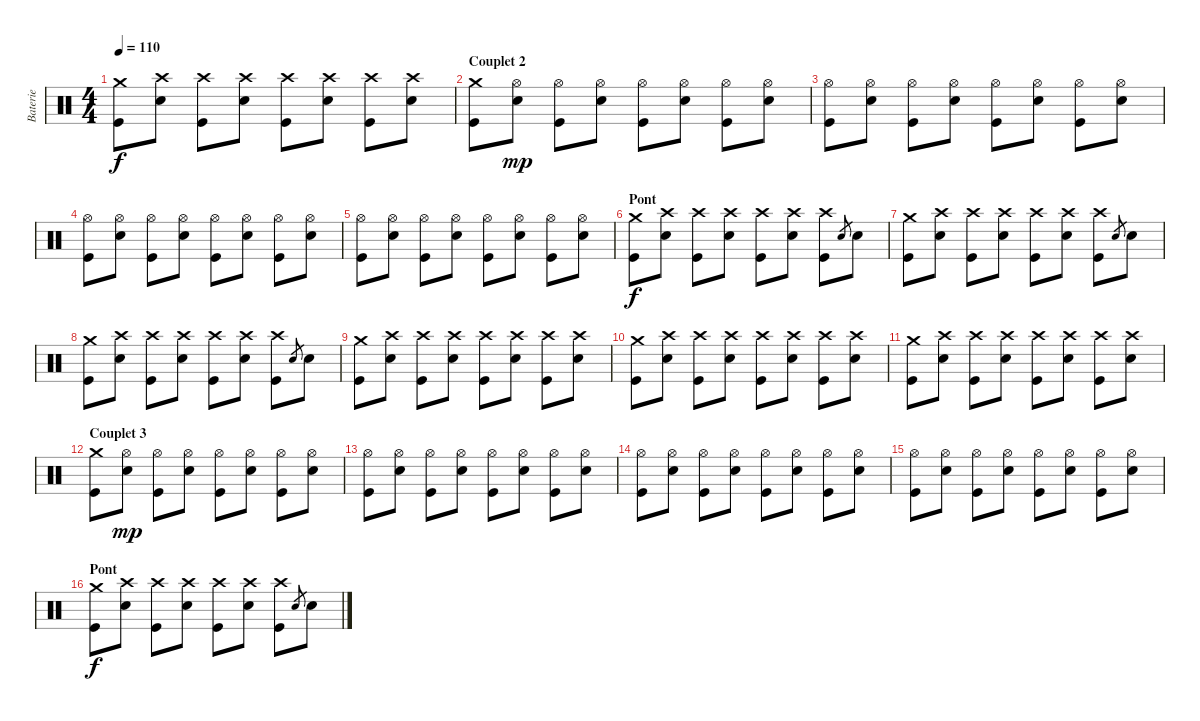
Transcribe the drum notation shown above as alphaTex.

\track ("Baterie" "Baterie") {instrument percussion}
\staff {score}
\articulation defaults
\ts (4 4)
\tempo 110
\clef neutral
\ks c
("Crash medium (hit)" "Kick (hit)").8{dy f} ("Crash high (hit)" "Electric Snare (hit)").8 ("Crash high (hit)" "Kick (hit)").8 ("Crash high (hit)" "Electric Snare (hit)").8 ("Crash high (hit)" "Kick (hit)").8 ("Crash high (hit)" "Electric Snare (hit)").8 ("Crash high (hit)" "Kick (hit)").8 ("Crash high (hit)" "Electric Snare (hit)").8 |
\section ("" "Couplet 2")
("Crash medium (hit)" "Kick (hit)").8 ("Hi-Hat (open)" "Electric Snare (hit)").8{dy mp} ("Hi-Hat (open)" "Kick (hit)").8 ("Hi-Hat (open)" "Electric Snare (hit)").8 ("Hi-Hat (open)" "Kick (hit)").8 ("Hi-Hat (open)" "Electric Snare (hit)").8 ("Hi-Hat (open)" "Kick (hit)").8 ("Hi-Hat (open)" "Electric Snare (hit)").8 |
("Hi-Hat (open)" "Kick (hit)").8 ("Hi-Hat (open)" "Electric Snare (hit)").8 ("Hi-Hat (open)" "Kick (hit)").8 ("Hi-Hat (open)" "Electric Snare (hit)").8 ("Hi-Hat (open)" "Kick (hit)").8 ("Hi-Hat (open)" "Electric Snare (hit)").8 ("Hi-Hat (open)" "Kick (hit)").8 ("Hi-Hat (open)" "Electric Snare (hit)").8 |
("Hi-Hat (open)" "Kick (hit)").8 ("Hi-Hat (open)" "Electric Snare (hit)").8 ("Hi-Hat (open)" "Kick (hit)").8 ("Hi-Hat (open)" "Electric Snare (hit)").8 ("Hi-Hat (open)" "Kick (hit)").8 ("Hi-Hat (open)" "Electric Snare (hit)").8 ("Hi-Hat (open)" "Kick (hit)").8 ("Hi-Hat (open)" "Electric Snare (hit)").8 |
("Hi-Hat (open)" "Kick (hit)").8 ("Hi-Hat (open)" "Electric Snare (hit)").8 ("Hi-Hat (open)" "Kick (hit)").8 ("Hi-Hat (open)" "Electric Snare (hit)").8 ("Hi-Hat (open)" "Kick (hit)").8 ("Hi-Hat (open)" "Electric Snare (hit)").8 ("Hi-Hat (open)" "Kick (hit)").8 ("Hi-Hat (open)" "Electric Snare (hit)").8 |
\section ("" "Pont")
("Crash medium (hit)" "Kick (hit)").8{dy f} ("Crash high (hit)" "Electric Snare (hit)").8 ("Crash high (hit)" "Kick (hit)").8 ("Crash high (hit)" "Electric Snare (hit)").8 ("Crash high (hit)" "Kick (hit)").8 ("Crash high (hit)" "Electric Snare (hit)").8 ("Crash high (hit)" "Kick (hit)").8 "Electric Snare (hit)".8{gr} "Electric Snare (hit)".8 |
("Crash medium (hit)" "Kick (hit)").8 ("Crash high (hit)" "Electric Snare (hit)").8 ("Crash high (hit)" "Kick (hit)").8 ("Crash high (hit)" "Electric Snare (hit)").8 ("Crash high (hit)" "Kick (hit)").8 ("Crash high (hit)" "Electric Snare (hit)").8 ("Crash high (hit)" "Kick (hit)").8 "Electric Snare (hit)".8{gr} "Electric Snare (hit)".8 |
("Crash medium (hit)" "Kick (hit)").8 ("Crash high (hit)" "Electric Snare (hit)").8 ("Crash high (hit)" "Kick (hit)").8 ("Crash high (hit)" "Electric Snare (hit)").8 ("Crash high (hit)" "Kick (hit)").8 ("Crash high (hit)" "Electric Snare (hit)").8 ("Crash high (hit)" "Kick (hit)").8 "Electric Snare (hit)".8{gr} "Electric Snare (hit)".8 |
("Crash medium (hit)" "Kick (hit)").8 ("Crash high (hit)" "Electric Snare (hit)").8 ("Crash high (hit)" "Kick (hit)").8 ("Crash high (hit)" "Electric Snare (hit)").8 ("Crash high (hit)" "Kick (hit)").8 ("Crash high (hit)" "Electric Snare (hit)").8 ("Crash high (hit)" "Kick (hit)").8 ("Crash high (hit)" "Electric Snare (hit)").8 |
("Crash medium (hit)" "Kick (hit)").8 ("Crash high (hit)" "Electric Snare (hit)").8 ("Crash high (hit)" "Kick (hit)").8 ("Crash high (hit)" "Electric Snare (hit)").8 ("Crash high (hit)" "Kick (hit)").8 ("Crash high (hit)" "Electric Snare (hit)").8 ("Crash high (hit)" "Kick (hit)").8 ("Crash high (hit)" "Electric Snare (hit)").8 |
("Crash medium (hit)" "Kick (hit)").8 ("Crash high (hit)" "Electric Snare (hit)").8 ("Crash high (hit)" "Kick (hit)").8 ("Crash high (hit)" "Electric Snare (hit)").8 ("Crash high (hit)" "Kick (hit)").8 ("Crash high (hit)" "Electric Snare (hit)").8 ("Crash high (hit)" "Kick (hit)").8 ("Crash high (hit)" "Electric Snare (hit)").8 |
\section ("" "Couplet 3")
("Crash medium (hit)" "Kick (hit)").8 ("Hi-Hat (open)" "Electric Snare (hit)").8{dy mp} ("Hi-Hat (open)" "Kick (hit)").8 ("Hi-Hat (open)" "Electric Snare (hit)").8 ("Hi-Hat (open)" "Kick (hit)").8 ("Hi-Hat (open)" "Electric Snare (hit)").8 ("Hi-Hat (open)" "Kick (hit)").8 ("Hi-Hat (open)" "Electric Snare (hit)").8 |
("Hi-Hat (open)" "Kick (hit)").8 ("Hi-Hat (open)" "Electric Snare (hit)").8 ("Hi-Hat (open)" "Kick (hit)").8 ("Hi-Hat (open)" "Electric Snare (hit)").8 ("Hi-Hat (open)" "Kick (hit)").8 ("Hi-Hat (open)" "Electric Snare (hit)").8 ("Hi-Hat (open)" "Kick (hit)").8 ("Hi-Hat (open)" "Electric Snare (hit)").8 |
("Hi-Hat (open)" "Kick (hit)").8 ("Hi-Hat (open)" "Electric Snare (hit)").8 ("Hi-Hat (open)" "Kick (hit)").8 ("Hi-Hat (open)" "Electric Snare (hit)").8 ("Hi-Hat (open)" "Kick (hit)").8 ("Hi-Hat (open)" "Electric Snare (hit)").8 ("Hi-Hat (open)" "Kick (hit)").8 ("Hi-Hat (open)" "Electric Snare (hit)").8 |
("Hi-Hat (open)" "Kick (hit)").8 ("Hi-Hat (open)" "Electric Snare (hit)").8 ("Hi-Hat (open)" "Kick (hit)").8 ("Hi-Hat (open)" "Electric Snare (hit)").8 ("Hi-Hat (open)" "Kick (hit)").8 ("Hi-Hat (open)" "Electric Snare (hit)").8 ("Hi-Hat (open)" "Kick (hit)").8 ("Hi-Hat (open)" "Electric Snare (hit)").8 |
\section ("" "Pont")
("Crash medium (hit)" "Kick (hit)").8{dy f} ("Crash high (hit)" "Electric Snare (hit)").8 ("Crash high (hit)" "Kick (hit)").8 ("Crash high (hit)" "Electric Snare (hit)").8 ("Crash high (hit)" "Kick (hit)").8 ("Crash high (hit)" "Electric Snare (hit)").8 ("Crash high (hit)" "Kick (hit)").8 "Electric Snare (hit)".8{gr} "Electric Snare (hit)".8
